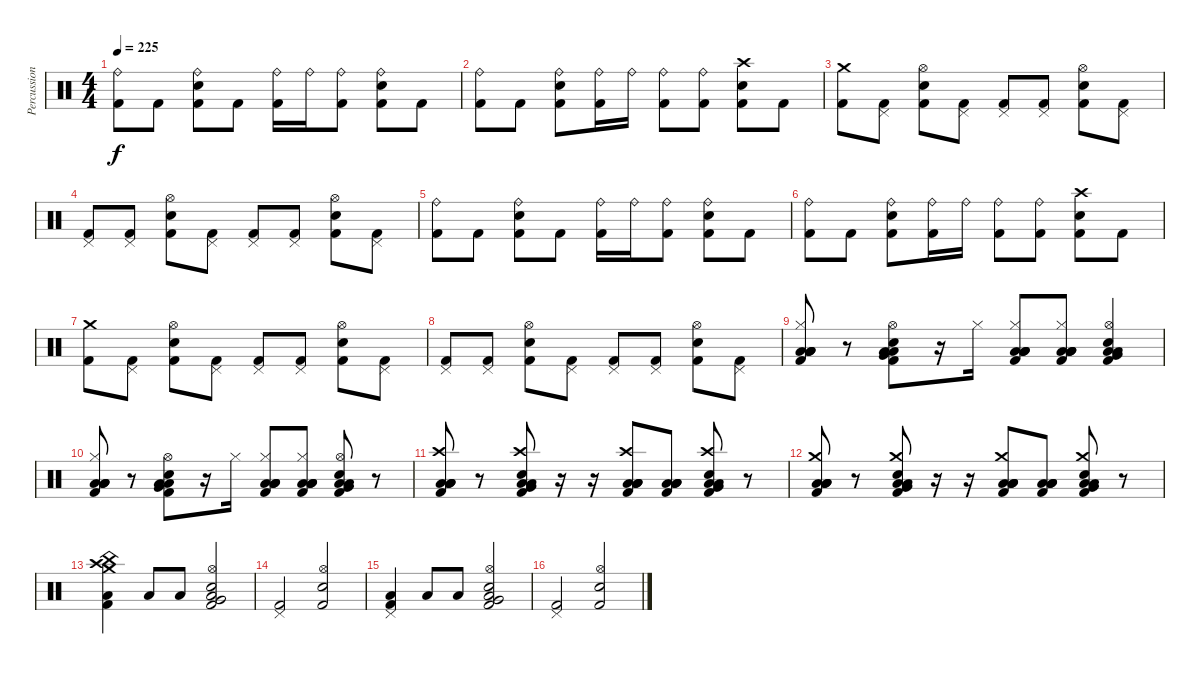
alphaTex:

\track ("Percussion" "Percussion") {instrument percussion}
\staff {score}
\articulation defaults
\ts (4 4)
\tempo 225
\clef neutral
\ks c
("Ride (bell)" "Kick (hit) 2").8{dy f} "Kick (hit) 2".8 ("Ride (bell)" "Electric Snare (hit)" "Kick (hit) 2").8 "Kick (hit) 2".8 ("Ride (bell)" "Kick (hit) 2").16 "Ride (bell)".16 ("Ride (bell)" "Kick (hit) 2").8 ("Ride (bell)" "Electric Snare (hit)" "Kick (hit) 2").8 "Kick (hit) 2".8 |
("Ride (bell)" "Kick (hit) 2").8 "Kick (hit) 2".8 ("Ride (bell)" "Electric Snare (hit)" "Kick (hit) 2").8 ("Ride (bell)" "Kick (hit) 2").16 "Ride (bell)".16 ("Ride (bell)" "Kick (hit) 2").8 ("Ride (bell)" "Kick (hit) 2").8 ("Crash high (hit)" "Electric Snare (hit)" "Kick (hit) 2").8 "Kick (hit) 2".8 |
("Crash medium (hit)" "Kick (hit) 2").8 ("Pedal Hi-Hat (hit)" "Kick (hit) 2").8 ("Hi-Hat (open)" "Electric Snare (hit)" "Kick (hit) 2").8 ("Pedal Hi-Hat (hit)" "Kick (hit) 2").8 ("Pedal Hi-Hat (hit)" "Kick (hit) 2").8 ("Pedal Hi-Hat (hit)" "Kick (hit) 2").8 ("Hi-Hat (open)" "Electric Snare (hit)" "Kick (hit) 2").8 ("Pedal Hi-Hat (hit)" "Kick (hit) 2").8 |
("Pedal Hi-Hat (hit)" "Kick (hit) 2").8 ("Pedal Hi-Hat (hit)" "Kick (hit) 2").8 ("Hi-Hat (open)" "Electric Snare (hit)" "Kick (hit) 2").8 ("Pedal Hi-Hat (hit)" "Kick (hit) 2").8 ("Pedal Hi-Hat (hit)" "Kick (hit) 2").8 ("Pedal Hi-Hat (hit)" "Kick (hit) 2").8 ("Hi-Hat (open)" "Electric Snare (hit)" "Kick (hit) 2").8 ("Pedal Hi-Hat (hit)" "Kick (hit) 2").8 |
("Ride (bell)" "Kick (hit) 2").8 "Kick (hit) 2".8 ("Ride (bell)" "Electric Snare (hit)" "Kick (hit) 2").8 "Kick (hit) 2".8 ("Ride (bell)" "Kick (hit) 2").16 "Ride (bell)".16 ("Ride (bell)" "Kick (hit) 2").8 ("Ride (bell)" "Electric Snare (hit)" "Kick (hit) 2").8 "Kick (hit) 2".8 |
("Ride (bell)" "Kick (hit) 2").8 "Kick (hit) 2".8 ("Ride (bell)" "Electric Snare (hit)" "Kick (hit) 2").8 ("Ride (bell)" "Kick (hit) 2").16 "Ride (bell)".16 ("Ride (bell)" "Kick (hit) 2").8 ("Ride (bell)" "Kick (hit) 2").8 ("Crash high (hit)" "Electric Snare (hit)" "Kick (hit) 2").8 "Kick (hit) 2".8 |
("Crash medium (hit)" "Kick (hit) 2").8 ("Pedal Hi-Hat (hit)" "Kick (hit) 2").8 ("Hi-Hat (open)" "Electric Snare (hit)" "Kick (hit) 2").8 ("Pedal Hi-Hat (hit)" "Kick (hit) 2").8 ("Pedal Hi-Hat (hit)" "Kick (hit) 2").8 ("Pedal Hi-Hat (hit)" "Kick (hit) 2").8 ("Hi-Hat (open)" "Electric Snare (hit)" "Kick (hit) 2").8 ("Pedal Hi-Hat (hit)" "Kick (hit) 2").8 |
("Pedal Hi-Hat (hit)" "Kick (hit) 2").8 ("Pedal Hi-Hat (hit)" "Kick (hit) 2").8 ("Hi-Hat (open)" "Electric Snare (hit)" "Kick (hit) 2").8 ("Pedal Hi-Hat (hit)" "Kick (hit) 2").8 ("Pedal Hi-Hat (hit)" "Kick (hit) 2").8 ("Pedal Hi-Hat (hit)" "Kick (hit) 2").8 ("Hi-Hat (open)" "Electric Snare (hit)" "Kick (hit) 2").8 ("Pedal Hi-Hat (hit)" "Kick (hit) 2").8 |
("Hi-Hat (closed)" "Low Floor Tom (hit)" "Low Floor Tom (hit)" "Low Floor Tom (hit)" "Low Floor Tom (hit)" "Kick (hit) 2").8{volume 16} r.8 ("Hi-Hat (open)" "Electric Snare (hit)" "Very Low Tom (hit)" "Low Floor Tom (hit)" "Low Floor Tom (hit)" "Kick (hit) 2").8 r.16 "Hi-Hat (closed)".16 ("Hi-Hat (closed)" "Low Floor Tom (hit)" "Low Floor Tom (hit)" "Low Floor Tom (hit)" "Low Floor Tom (hit)" "Kick (hit) 2").8 ("Hi-Hat (closed)" "Low Floor Tom (hit)" "Low Floor Tom (hit)" "Low Floor Tom (hit)" "Low Floor Tom (hit)" "Kick (hit) 2").8 ("Hi-Hat (open)" "Electric Snare (hit)" "Very Low Tom (hit)" "Low Floor Tom (hit)" "Low Floor Tom (hit)" "Kick (hit) 2").4 |
("Hi-Hat (closed)" "Low Floor Tom (hit)" "Low Floor Tom (hit)" "Low Floor Tom (hit)" "Low Floor Tom (hit)" "Kick (hit) 2").8 r.8 ("Hi-Hat (open)" "Electric Snare (hit)" "Very Low Tom (hit)" "Low Floor Tom (hit)" "Low Floor Tom (hit)" "Kick (hit) 2").8 r.16 "Hi-Hat (closed)".16 ("Hi-Hat (closed)" "Low Floor Tom (hit)" "Low Floor Tom (hit)" "Low Floor Tom (hit)" "Low Floor Tom (hit)" "Kick (hit) 2").8 ("Hi-Hat (closed)" "Low Floor Tom (hit)" "Low Floor Tom (hit)" "Low Floor Tom (hit)" "Low Floor Tom (hit)" "Kick (hit) 2").8 ("Hi-Hat (open)" "Electric Snare (hit)" "Very Low Tom (hit)" "Low Floor Tom (hit)" "Low Floor Tom (hit)" "Kick (hit) 2").8 r.8 |
("Crash high (hit)" "Low Floor Tom (hit)" "Low Floor Tom (hit)" "Low Floor Tom (hit)" "Low Floor Tom (hit)" "Kick (hit) 2").8 r.8 ("Crash high (hit)" "Electric Snare (hit)" "Very Low Tom (hit)" "Low Floor Tom (hit)" "Low Floor Tom (hit)" "Kick (hit) 2").8 r.16 r.16 ("Crash high (hit)" "Low Floor Tom (hit)" "Low Floor Tom (hit)" "Low Floor Tom (hit)" "Low Floor Tom (hit)" "Kick (hit) 2").8 ("Low Floor Tom (hit)" "Low Floor Tom (hit)" "Low Floor Tom (hit)" "Low Floor Tom (hit)" "Kick (hit) 2").8 ("Crash high (hit)" "Electric Snare (hit)" "Very Low Tom (hit)" "Low Floor Tom (hit)" "Low Floor Tom (hit)" "Kick (hit) 2").8 r.8 |
("Crash medium (hit)" "Low Floor Tom (hit)" "Low Floor Tom (hit)" "Low Floor Tom (hit)" "Low Floor Tom (hit)" "Kick (hit) 2").8 r.8 ("Crash medium (hit)" "Electric Snare (hit)" "Very Low Tom (hit)" "Low Floor Tom (hit)" "Low Floor Tom (hit)" "Kick (hit) 2").8 r.16 r.16 ("Crash medium (hit)" "Low Floor Tom (hit)" "Low Floor Tom (hit)" "Low Floor Tom (hit)" "Low Floor Tom (hit)" "Kick (hit) 2").8 ("Low Floor Tom (hit)" "Low Floor Tom (hit)" "Low Floor Tom (hit)" "Low Floor Tom (hit)" "Kick (hit) 2").8 ("Crash medium (hit)" "Electric Snare (hit)" "Very Low Tom (hit)" "Low Floor Tom (hit)" "Low Floor Tom (hit)" "Kick (hit) 2").8 r.8 |
("China (hit)" "Crash high (hit)" "Crash medium (hit)" "Low Floor Tom (hit)" "Kick (hit) 2").4 "Low Floor Tom (hit)".8 "Low Floor Tom (hit)".8 ("Hi-Hat (open)" "Low Tom (hit)" "Very Low Tom (hit)" "Hand Clap (hit)" "Kick (hit) 2").2 |
("Pedal Hi-Hat (hit)" "Kick (hit) 2").2 ("Hi-Hat (open)" "Hand Clap (hit)" "Kick (hit) 2").2 |
("Pedal Hi-Hat (hit)" "Low Floor Tom (hit)" "Kick (hit) 2").4 "Low Floor Tom (hit)".8 "Low Floor Tom (hit)".8 ("Hi-Hat (open)" "Low Tom (hit)" "Very Low Tom (hit)" "Hand Clap (hit)" "Kick (hit) 2").2 |
("Pedal Hi-Hat (hit)" "Kick (hit) 2").2 ("Hi-Hat (open)" "Hand Clap (hit)" "Kick (hit) 2").2
